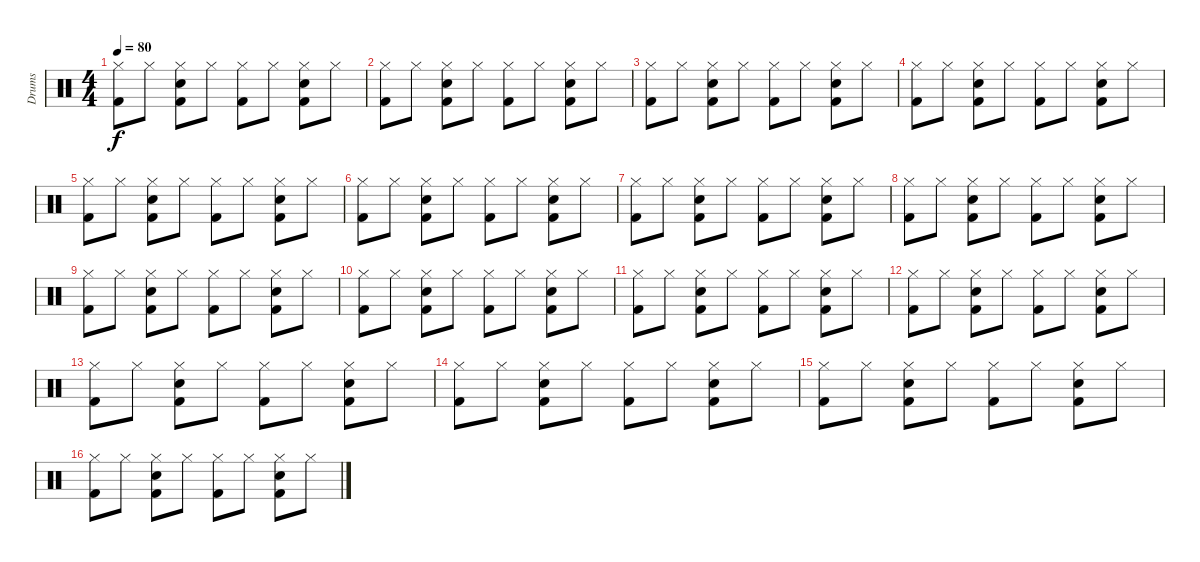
\track ("Drums" "Drums") {instrument percussion}
\staff {score}
\articulation defaults
\ts (4 4)
\tempo 80
\clef neutral
\ks c
("Hi-Hat (closed)" "Kick (hit) 2").8{dy f} "Hi-Hat (closed)".8 ("Hi-Hat (closed)" "Electric Snare (hit)" "Kick (hit) 2").8 "Hi-Hat (closed)".8 ("Hi-Hat (closed)" "Kick (hit) 2").8 "Hi-Hat (closed)".8 ("Hi-Hat (closed)" "Electric Snare (hit)" "Kick (hit) 2").8 "Hi-Hat (closed)".8 |
("Hi-Hat (closed)" "Kick (hit) 2").8 "Hi-Hat (closed)".8 ("Hi-Hat (closed)" "Electric Snare (hit)" "Kick (hit) 2").8 "Hi-Hat (closed)".8 ("Hi-Hat (closed)" "Kick (hit) 2").8 "Hi-Hat (closed)".8 ("Hi-Hat (closed)" "Electric Snare (hit)" "Kick (hit) 2").8 "Hi-Hat (closed)".8 |
("Hi-Hat (closed)" "Kick (hit) 2").8 "Hi-Hat (closed)".8 ("Hi-Hat (closed)" "Electric Snare (hit)" "Kick (hit) 2").8 "Hi-Hat (closed)".8 ("Hi-Hat (closed)" "Kick (hit) 2").8 "Hi-Hat (closed)".8 ("Hi-Hat (closed)" "Electric Snare (hit)" "Kick (hit) 2").8 "Hi-Hat (closed)".8 |
("Hi-Hat (closed)" "Kick (hit) 2").8 "Hi-Hat (closed)".8 ("Hi-Hat (closed)" "Electric Snare (hit)" "Kick (hit) 2").8 "Hi-Hat (closed)".8 ("Hi-Hat (closed)" "Kick (hit) 2").8 "Hi-Hat (closed)".8 ("Hi-Hat (closed)" "Electric Snare (hit)" "Kick (hit) 2").8 "Hi-Hat (closed)".8 |
("Hi-Hat (closed)" "Kick (hit) 2").8 "Hi-Hat (closed)".8 ("Hi-Hat (closed)" "Electric Snare (hit)" "Kick (hit) 2").8 "Hi-Hat (closed)".8 ("Hi-Hat (closed)" "Kick (hit) 2").8 "Hi-Hat (closed)".8 ("Hi-Hat (closed)" "Electric Snare (hit)" "Kick (hit) 2").8 "Hi-Hat (closed)".8 |
("Hi-Hat (closed)" "Kick (hit) 2").8 "Hi-Hat (closed)".8 ("Hi-Hat (closed)" "Electric Snare (hit)" "Kick (hit) 2").8 "Hi-Hat (closed)".8 ("Hi-Hat (closed)" "Kick (hit) 2").8 "Hi-Hat (closed)".8 ("Hi-Hat (closed)" "Electric Snare (hit)" "Kick (hit) 2").8 "Hi-Hat (closed)".8 |
("Hi-Hat (closed)" "Kick (hit) 2").8 "Hi-Hat (closed)".8 ("Hi-Hat (closed)" "Electric Snare (hit)" "Kick (hit) 2").8 "Hi-Hat (closed)".8 ("Hi-Hat (closed)" "Kick (hit) 2").8 "Hi-Hat (closed)".8 ("Hi-Hat (closed)" "Electric Snare (hit)" "Kick (hit) 2").8 "Hi-Hat (closed)".8 |
("Hi-Hat (closed)" "Kick (hit) 2").8 "Hi-Hat (closed)".8 ("Hi-Hat (closed)" "Electric Snare (hit)" "Kick (hit) 2").8 "Hi-Hat (closed)".8 ("Hi-Hat (closed)" "Kick (hit) 2").8 "Hi-Hat (closed)".8 ("Hi-Hat (closed)" "Electric Snare (hit)" "Kick (hit) 2").8 "Hi-Hat (closed)".8 |
("Hi-Hat (closed)" "Kick (hit) 2").8 "Hi-Hat (closed)".8 ("Hi-Hat (closed)" "Electric Snare (hit)" "Kick (hit) 2").8 "Hi-Hat (closed)".8 ("Hi-Hat (closed)" "Kick (hit) 2").8 "Hi-Hat (closed)".8 ("Hi-Hat (closed)" "Electric Snare (hit)" "Kick (hit) 2").8 "Hi-Hat (closed)".8 |
("Hi-Hat (closed)" "Kick (hit) 2").8 "Hi-Hat (closed)".8 ("Hi-Hat (closed)" "Electric Snare (hit)" "Kick (hit) 2").8 "Hi-Hat (closed)".8 ("Hi-Hat (closed)" "Kick (hit) 2").8 "Hi-Hat (closed)".8 ("Hi-Hat (closed)" "Electric Snare (hit)" "Kick (hit) 2").8 "Hi-Hat (closed)".8 |
("Hi-Hat (closed)" "Kick (hit) 2").8 "Hi-Hat (closed)".8 ("Hi-Hat (closed)" "Electric Snare (hit)" "Kick (hit) 2").8 "Hi-Hat (closed)".8 ("Hi-Hat (closed)" "Kick (hit) 2").8 "Hi-Hat (closed)".8 ("Hi-Hat (closed)" "Electric Snare (hit)" "Kick (hit) 2").8 "Hi-Hat (closed)".8 |
("Hi-Hat (closed)" "Kick (hit) 2").8 "Hi-Hat (closed)".8 ("Hi-Hat (closed)" "Electric Snare (hit)" "Kick (hit) 2").8 "Hi-Hat (closed)".8 ("Hi-Hat (closed)" "Kick (hit) 2").8 "Hi-Hat (closed)".8 ("Hi-Hat (closed)" "Electric Snare (hit)" "Kick (hit) 2").8 "Hi-Hat (closed)".8 |
("Hi-Hat (closed)" "Kick (hit) 2").8 "Hi-Hat (closed)".8 ("Hi-Hat (closed)" "Electric Snare (hit)" "Kick (hit) 2").8 "Hi-Hat (closed)".8 ("Hi-Hat (closed)" "Kick (hit) 2").8 "Hi-Hat (closed)".8 ("Hi-Hat (closed)" "Electric Snare (hit)" "Kick (hit) 2").8 "Hi-Hat (closed)".8 |
("Hi-Hat (closed)" "Kick (hit) 2").8 "Hi-Hat (closed)".8 ("Hi-Hat (closed)" "Electric Snare (hit)" "Kick (hit) 2").8 "Hi-Hat (closed)".8 ("Hi-Hat (closed)" "Kick (hit) 2").8 "Hi-Hat (closed)".8 ("Hi-Hat (closed)" "Electric Snare (hit)" "Kick (hit) 2").8 "Hi-Hat (closed)".8 |
("Hi-Hat (closed)" "Kick (hit) 2").8 "Hi-Hat (closed)".8 ("Hi-Hat (closed)" "Electric Snare (hit)" "Kick (hit) 2").8 "Hi-Hat (closed)".8 ("Hi-Hat (closed)" "Kick (hit) 2").8 "Hi-Hat (closed)".8 ("Hi-Hat (closed)" "Electric Snare (hit)" "Kick (hit) 2").8 "Hi-Hat (closed)".8 |
("Hi-Hat (closed)" "Kick (hit) 2").8 "Hi-Hat (closed)".8 ("Hi-Hat (closed)" "Electric Snare (hit)" "Kick (hit) 2").8 "Hi-Hat (closed)".8 ("Hi-Hat (closed)" "Kick (hit) 2").8 "Hi-Hat (closed)".8 ("Hi-Hat (closed)" "Electric Snare (hit)" "Kick (hit) 2").8 "Hi-Hat (closed)".8
